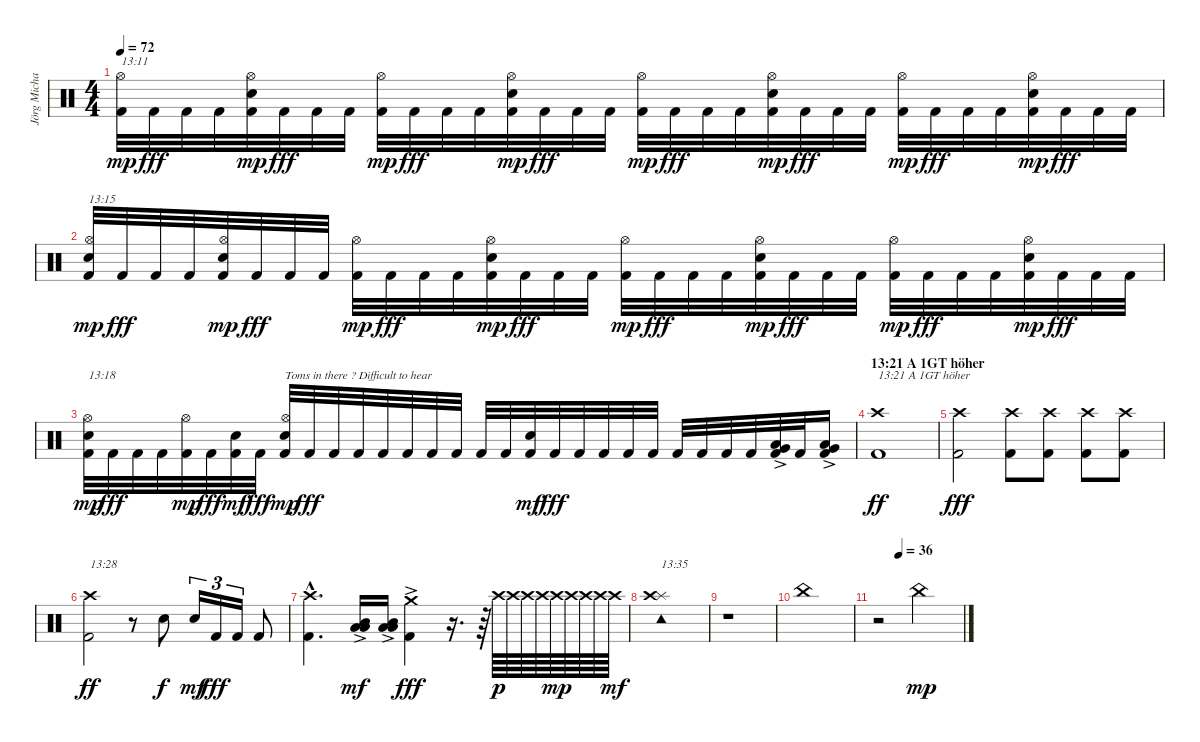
\track ("Jörg Michael" "Jörg Micha") {instrument percussion}
\staff {score}
\articulation defaults
\ts (4 4)
\tempo 72
\clef neutral
\ks c
("Kick (hit) 2" "Hi-Hat (open)").32{txt "13:11" dy mp} "Kick (hit) 2".32{dy fff} "Kick (hit) 2".32 "Kick (hit) 2".32 ("Kick (hit) 2" "Snare (hit) 2" "Hi-Hat (open)").32{dy mp} "Kick (hit) 2".32{dy fff} "Kick (hit) 2".32 "Kick (hit) 2".32 ("Kick (hit) 2" "Hi-Hat (open)").32{dy mp} "Kick (hit) 2".32{dy fff} "Kick (hit) 2".32 "Kick (hit) 2".32 ("Kick (hit) 2" "Snare (hit) 2" "Hi-Hat (open)").32{dy mp} "Kick (hit) 2".32{dy fff} "Kick (hit) 2".32 "Kick (hit) 2".32 ("Kick (hit) 2" "Hi-Hat (open)").32{dy mp} "Kick (hit) 2".32{dy fff} "Kick (hit) 2".32 "Kick (hit) 2".32 ("Kick (hit) 2" "Snare (hit) 2" "Hi-Hat (open)").32{dy mp} "Kick (hit) 2".32{dy fff} "Kick (hit) 2".32 "Kick (hit) 2".32 ("Kick (hit) 2" "Hi-Hat (open)").32{dy mp} "Kick (hit) 2".32{dy fff} "Kick (hit) 2".32 "Kick (hit) 2".32 ("Kick (hit) 2" "Snare (hit) 2" "Hi-Hat (open)").32{dy mp} "Kick (hit) 2".32{dy fff} "Kick (hit) 2".32 "Kick (hit) 2".32 |
("Kick (hit) 2" "Snare (hit) 2" "Hi-Hat (open)").32{txt "13:15" dy mp} "Kick (hit) 2".32{dy fff} "Kick (hit) 2".32 "Kick (hit) 2".32 ("Kick (hit) 2" "Snare (hit) 2" "Hi-Hat (open)").32{dy mp} "Kick (hit) 2".32{dy fff} "Kick (hit) 2".32 "Kick (hit) 2".32 ("Kick (hit) 2" "Hi-Hat (open)").32{dy mp} "Kick (hit) 2".32{dy fff} "Kick (hit) 2".32 "Kick (hit) 2".32 ("Kick (hit) 2" "Snare (hit) 2" "Hi-Hat (open)").32{dy mp} "Kick (hit) 2".32{dy fff} "Kick (hit) 2".32 "Kick (hit) 2".32 ("Kick (hit) 2" "Hi-Hat (open)").32{dy mp} "Kick (hit) 2".32{dy fff} "Kick (hit) 2".32 "Kick (hit) 2".32 ("Kick (hit) 2" "Snare (hit) 2" "Hi-Hat (open)").32{dy mp} "Kick (hit) 2".32{dy fff} "Kick (hit) 2".32 "Kick (hit) 2".32 ("Kick (hit) 2" "Hi-Hat (open)").32{dy mp} "Kick (hit) 2".32{dy fff} "Kick (hit) 2".32 "Kick (hit) 2".32 ("Kick (hit) 2" "Snare (hit) 2" "Hi-Hat (open)").32{dy mp} "Kick (hit) 2".32{dy fff} "Kick (hit) 2".32 "Kick (hit) 2".32 |
("Kick (hit) 2" "Snare (hit) 2" "Hi-Hat (open)").32{txt "13:18" dy mp} "Kick (hit) 2".32{dy fff} "Kick (hit) 2".32 "Kick (hit) 2".32 ("Kick (hit) 2" "Hi-Hat (open)").32{dy mp} "Kick (hit) 2".32{dy fff} ("Kick (hit) 2" "Snare (hit) 2").32{dy mf} "Kick (hit) 2".32{dy fff} ("Kick (hit) 2" "Snare (hit) 2" "Hi-Hat (open)").32{txt "Toms in there ? Difficult to hear" dy mp} "Kick (hit) 2".32{dy fff} "Kick (hit) 2".32 "Kick (hit) 2".32 "Kick (hit) 2".32 "Kick (hit) 2".32 "Kick (hit) 2".32 "Kick (hit) 2".32 "Kick (hit) 2".32 "Kick (hit) 2".32 ("Kick (hit) 2" "Snare (hit) 2").32{dy mf} "Kick (hit) 2".32{dy fff} "Kick (hit) 2".32 "Kick (hit) 2".32 "Kick (hit) 2".32 "Kick (hit) 2".32 "Kick (hit) 2".32 "Kick (hit) 2".32 "Kick (hit) 2".32 "Kick (hit) 2".32 ("Kick (hit) 2" "Low Tom (hit)"{ac} "Very Low Tom (hit)"{ac}).32 "Kick (hit) 2".32 ("Kick (hit) 2" "Very Low Tom (hit)"{ac} "Low Floor Tom (hit)"{ac}).16 |
\section ("" "13:21 A 1GT höher")
("Kick (hit) 2" "Crash high (hit)").1{txt "13:21 A 1GT höher" dy ff} |
("Kick (hit) 2" "Crash high (hit)").2{dy fff} ("Kick (hit) 2" "Crash high (hit)").8 ("Kick (hit) 2" "Crash high (hit)").8 ("Kick (hit) 2" "Crash high (hit)").8 ("Kick (hit) 2" "Crash high (hit)").8 |
("Kick (hit) 2" "Crash high (hit)").2{txt "13:28" dy ff} r.8 "Snare (hit) 2".8{dy f} "Snare (hit) 2".16{tu (3 2) dy mf} "Kick (hit) 2".16{tu (3 2) dy fff} "Kick (hit) 2".16{tu (3 2)} "Kick (hit) 2".8 |
("Kick (hit) 2"{hac} "Crash high (hit)"{hac}).4{d} ("Low Tom (hit)"{ac} "Low Tom (hit)"{ac} "Mid Tom (hit)").16{dy mf} ("Low Tom (hit)"{ac} "Low Tom (hit)"{ac} "Mid Tom (hit)").16 ("Kick (hit) 2" "Crash medium (hit)"{ac}).4{dy fff} r.16{d} r.64 "Crash high (hit)".64{dy p} "Crash high (hit)".64 "Crash high (hit)".64 "Crash high (hit)".64 "Crash high (hit)".64{dy mp} "Crash high (hit)".64 "Crash high (hit)".64 "Crash high (hit)".64 "Crash high (hit)".64{dy mf} |
("Splash (hit)" "Tambourine (hit)" "Crash high (hit)").1{txt "13:35"} |
r.1 |
"China (hit)".1 |
\tempo (36 0.25)
r.2 "China (hit)".2{dy mp}
